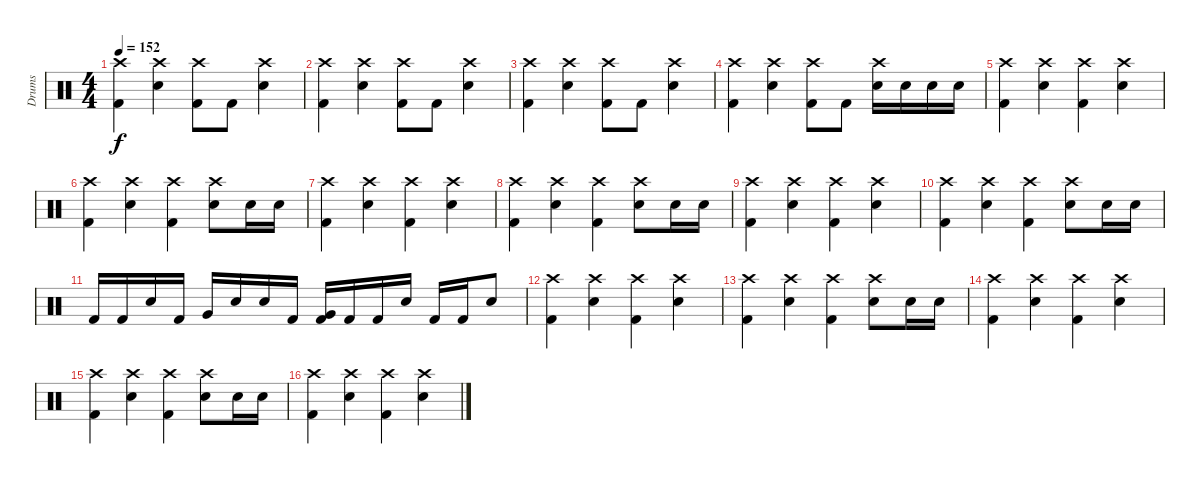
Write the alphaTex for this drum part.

\track ("Drums" "Drums") {instrument percussion}
\staff {score}
\articulation defaults
\ts (4 4)
\tempo 152
\clef neutral
\ks c
("Crash high (hit)" "Kick (hit) 2").4{dy f} ("Crash high (hit)" "Electric Snare (hit)").4 ("Crash high (hit)" "Kick (hit) 2").8 "Kick (hit) 2".8 ("Crash high (hit)" "Electric Snare (hit)").4 |
("Crash high (hit)" "Kick (hit) 2").4 ("Crash high (hit)" "Electric Snare (hit)").4 ("Crash high (hit)" "Kick (hit) 2").8 "Kick (hit) 2".8 ("Crash high (hit)" "Electric Snare (hit)").4 |
("Crash high (hit)" "Kick (hit) 2").4 ("Crash high (hit)" "Electric Snare (hit)").4 ("Crash high (hit)" "Kick (hit) 2").8 "Kick (hit) 2".8 ("Crash high (hit)" "Electric Snare (hit)").4 |
("Crash high (hit)" "Kick (hit) 2").4 ("Crash high (hit)" "Electric Snare (hit)").4 ("Crash high (hit)" "Kick (hit) 2").8 "Kick (hit) 2".8 ("Crash high (hit)" "Electric Snare (hit)").16 "Electric Snare (hit)".16 "Electric Snare (hit)".16 "Electric Snare (hit)".16 |
("Crash high (hit)" "Kick (hit) 2").4 ("Crash high (hit)" "Electric Snare (hit)").4 ("Crash high (hit)" "Kick (hit) 2").4 ("Crash high (hit)" "Electric Snare (hit)").4 |
("Crash high (hit)" "Kick (hit) 2").4 ("Crash high (hit)" "Electric Snare (hit)").4 ("Crash high (hit)" "Kick (hit) 2").4 ("Crash high (hit)" "Electric Snare (hit)").8 "Electric Snare (hit)".16 "Electric Snare (hit)".16 |
("Crash high (hit)" "Kick (hit) 2").4 ("Crash high (hit)" "Electric Snare (hit)").4 ("Crash high (hit)" "Kick (hit) 2").4 ("Crash high (hit)" "Electric Snare (hit)").4 |
("Crash high (hit)" "Kick (hit) 2").4 ("Crash high (hit)" "Electric Snare (hit)").4 ("Crash high (hit)" "Kick (hit) 2").4 ("Crash high (hit)" "Electric Snare (hit)").8 "Electric Snare (hit)".16 "Electric Snare (hit)".16 |
("Crash high (hit)" "Kick (hit) 2").4 ("Crash high (hit)" "Electric Snare (hit)").4 ("Crash high (hit)" "Kick (hit) 2").4 ("Crash high (hit)" "Electric Snare (hit)").4 |
("Crash high (hit)" "Kick (hit) 2").4 ("Crash high (hit)" "Electric Snare (hit)").4 ("Crash high (hit)" "Kick (hit) 2").4 ("Crash high (hit)" "Electric Snare (hit)").8 "Electric Snare (hit)".16 "Electric Snare (hit)".16 |
"Kick (hit) 2".16 "Kick (hit) 2".16 "Electric Snare (hit)".16 "Kick (hit) 2".16 "Very Low Tom (hit)".16 "Electric Snare (hit)".16 "Electric Snare (hit)".16 "Kick (hit) 2".16 ("Very Low Tom (hit)" "Kick (hit) 2").16 "Kick (hit) 2".16 "Kick (hit) 2".16 "Electric Snare (hit)".16 "Kick (hit) 2".16 "Kick (hit) 2".16 "Electric Snare (hit)".8 |
("Crash high (hit)" "Kick (hit) 2").4 ("Crash high (hit)" "Electric Snare (hit)").4 ("Crash high (hit)" "Kick (hit) 2").4 ("Crash high (hit)" "Electric Snare (hit)").4 |
("Crash high (hit)" "Kick (hit) 2").4 ("Crash high (hit)" "Electric Snare (hit)").4 ("Crash high (hit)" "Kick (hit) 2").4 ("Crash high (hit)" "Electric Snare (hit)").8 "Electric Snare (hit)".16 "Electric Snare (hit)".16 |
("Crash high (hit)" "Kick (hit) 2").4 ("Crash high (hit)" "Electric Snare (hit)").4 ("Crash high (hit)" "Kick (hit) 2").4 ("Crash high (hit)" "Electric Snare (hit)").4 |
("Crash high (hit)" "Kick (hit) 2").4 ("Crash high (hit)" "Electric Snare (hit)").4 ("Crash high (hit)" "Kick (hit) 2").4 ("Crash high (hit)" "Electric Snare (hit)").8 "Electric Snare (hit)".16 "Electric Snare (hit)".16 |
("Crash high (hit)" "Kick (hit) 2").4 ("Crash high (hit)" "Electric Snare (hit)").4 ("Crash high (hit)" "Kick (hit) 2").4 ("Crash high (hit)" "Electric Snare (hit)").4
